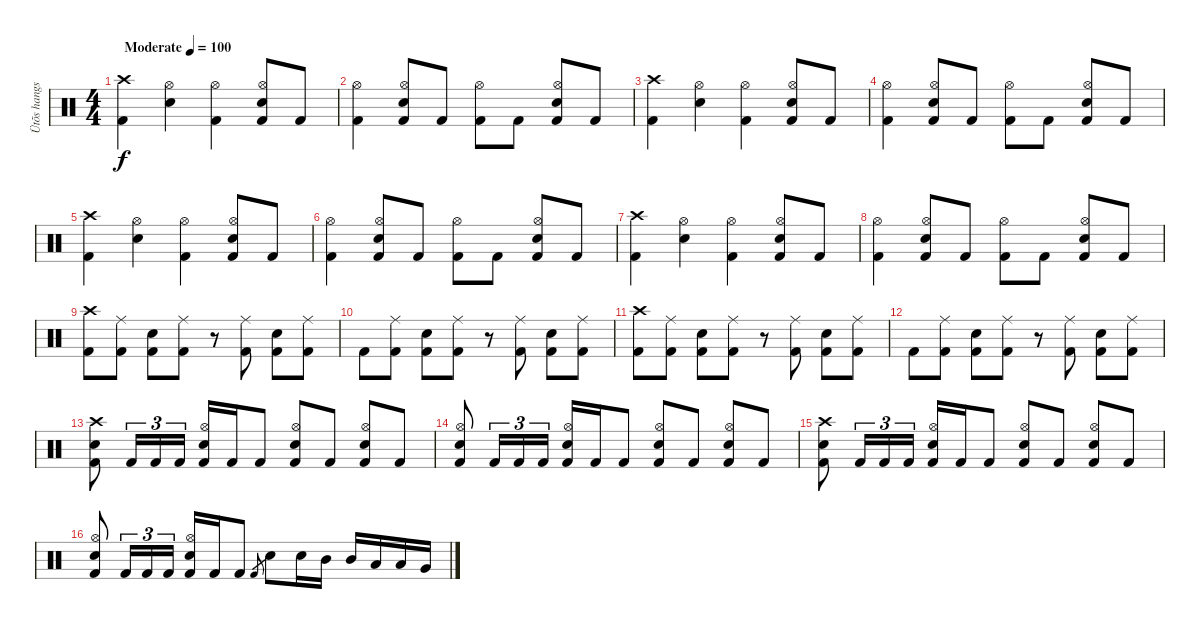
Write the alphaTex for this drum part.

\track ("Ütõs hangszer" "Ütõs hangs") {instrument percussion}
\staff {score}
\articulation defaults
\ts (4 4)
\tempo (100 "Moderate")
\clef neutral
\ks c
("Crash high (hit)" "Kick (hit) 2").4{dy f} ("Hi-Hat (open)" "Snare (hit) 2").4 ("Hi-Hat (open)" "Kick (hit) 2").4 ("Snare (hit) 2" "Hi-Hat (open)" "Kick (hit) 2").8 "Kick (hit) 2".8 |
("Hi-Hat (open)" "Kick (hit) 2").4 ("Hi-Hat (open)" "Snare (hit) 2" "Kick (hit) 2").8 "Kick (hit) 2".8 ("Hi-Hat (open)" "Kick (hit) 2").8 "Kick (hit) 2".8 ("Hi-Hat (open)" "Snare (hit) 2" "Kick (hit) 2").8 "Kick (hit) 2".8 |
("Crash high (hit)" "Kick (hit) 2").4 ("Hi-Hat (open)" "Snare (hit) 2").4 ("Hi-Hat (open)" "Kick (hit) 2").4 ("Snare (hit) 2" "Hi-Hat (open)" "Kick (hit) 2").8 "Kick (hit) 2".8 |
("Hi-Hat (open)" "Kick (hit) 2").4 ("Hi-Hat (open)" "Snare (hit) 2" "Kick (hit) 2").8 "Kick (hit) 2".8 ("Hi-Hat (open)" "Kick (hit) 2").8 "Kick (hit) 2".8 ("Hi-Hat (open)" "Snare (hit) 2" "Kick (hit) 2").8 "Kick (hit) 2".8 |
("Crash high (hit)" "Kick (hit) 2").4 ("Hi-Hat (open)" "Snare (hit) 2").4 ("Hi-Hat (open)" "Kick (hit) 2").4 ("Snare (hit) 2" "Hi-Hat (open)" "Kick (hit) 2").8 "Kick (hit) 2".8 |
("Hi-Hat (open)" "Kick (hit) 2").4 ("Hi-Hat (open)" "Snare (hit) 2" "Kick (hit) 2").8 "Kick (hit) 2".8 ("Hi-Hat (open)" "Kick (hit) 2").8 "Kick (hit) 2".8 ("Hi-Hat (open)" "Snare (hit) 2" "Kick (hit) 2").8 "Kick (hit) 2".8 |
("Crash high (hit)" "Kick (hit) 2").4 ("Hi-Hat (open)" "Snare (hit) 2").4 ("Hi-Hat (open)" "Kick (hit) 2").4 ("Snare (hit) 2" "Hi-Hat (open)" "Kick (hit) 2").8 "Kick (hit) 2".8 |
("Hi-Hat (open)" "Kick (hit) 2").4 ("Hi-Hat (open)" "Snare (hit) 2" "Kick (hit) 2").8 "Kick (hit) 2".8 ("Hi-Hat (open)" "Kick (hit) 2").8 "Kick (hit) 2".8 ("Hi-Hat (open)" "Snare (hit) 2" "Kick (hit) 2").8 "Kick (hit) 2".8 |
("Crash high (hit)" "Kick (hit) 2").8 ("Ride (middle)" "Kick (hit) 2").8 ("Snare (hit) 2" "Kick (hit) 2").8 ("Ride (middle)" "Kick (hit) 2").8 r.8 ("Ride (middle)" "Kick (hit) 2").8 ("Snare (hit) 2" "Kick (hit) 2").8 ("Ride (middle)" "Kick (hit) 2").8 |
"Kick (hit) 2".8 ("Ride (middle)" "Kick (hit) 2").8 ("Snare (hit) 2" "Kick (hit) 2").8 ("Ride (middle)" "Kick (hit) 2").8 r.8 ("Ride (middle)" "Kick (hit) 2").8 ("Snare (hit) 2" "Kick (hit) 2").8 ("Ride (middle)" "Kick (hit) 2").8 |
("Crash high (hit)" "Kick (hit) 2").8 ("Ride (middle)" "Kick (hit) 2").8 ("Snare (hit) 2" "Kick (hit) 2").8 ("Ride (middle)" "Kick (hit) 2").8 r.8 ("Ride (middle)" "Kick (hit) 2").8 ("Snare (hit) 2" "Kick (hit) 2").8 ("Ride (middle)" "Kick (hit) 2").8 |
"Kick (hit) 2".8 ("Ride (middle)" "Kick (hit) 2").8 ("Snare (hit) 2" "Kick (hit) 2").8 ("Ride (middle)" "Kick (hit) 2").8 r.8 ("Ride (middle)" "Kick (hit) 2").8 ("Snare (hit) 2" "Kick (hit) 2").8 ("Ride (middle)" "Kick (hit) 2").8 |
("Crash high (hit)" "Snare (hit) 2" "Kick (hit) 2").8 "Kick (hit) 2".16{tu (3 2)} "Kick (hit) 2".16{tu (3 2)} "Kick (hit) 2".16{tu (3 2)} ("Hi-Hat (open)" "Snare (hit) 2" "Kick (hit) 2").16 "Kick (hit) 2".16 "Kick (hit) 2".8 ("Hi-Hat (open)" "Snare (hit) 2" "Kick (hit) 2").8 "Kick (hit) 2".8 ("Hi-Hat (open)" "Snare (hit) 2" "Kick (hit) 2").8 "Kick (hit) 2".8 |
("Hi-Hat (open)" "Snare (hit) 2" "Kick (hit) 2").8 "Kick (hit) 2".16{tu (3 2)} "Kick (hit) 2".16{tu (3 2)} "Kick (hit) 2".16{tu (3 2)} ("Hi-Hat (open)" "Snare (hit) 2" "Kick (hit) 2").16 "Kick (hit) 2".16 "Kick (hit) 2".8 ("Hi-Hat (open)" "Snare (hit) 2" "Kick (hit) 2").8 "Kick (hit) 2".8 ("Hi-Hat (open)" "Snare (hit) 2" "Kick (hit) 2").8 "Kick (hit) 2".8 |
("Crash high (hit)" "Snare (hit) 2" "Kick (hit) 2").8 "Kick (hit) 2".16{tu (3 2)} "Kick (hit) 2".16{tu (3 2)} "Kick (hit) 2".16{tu (3 2)} ("Hi-Hat (open)" "Snare (hit) 2" "Kick (hit) 2").16 "Kick (hit) 2".16 "Kick (hit) 2".8 ("Hi-Hat (open)" "Snare (hit) 2" "Kick (hit) 2").8 "Kick (hit) 2".8 ("Hi-Hat (open)" "Snare (hit) 2" "Kick (hit) 2").8 "Kick (hit) 2".8 |
("Hi-Hat (open)" "Snare (hit) 2" "Kick (hit) 2").8 "Kick (hit) 2".16{tu (3 2)} "Kick (hit) 2".16{tu (3 2)} "Kick (hit) 2".16{tu (3 2)} ("Hi-Hat (open)" "Snare (hit) 2" "Kick (hit) 2").16 "Kick (hit) 2".16 "Kick (hit) 2".8 "Kick (hit) 2"{h}.8{gr} "Snare (hit) 2".8 "Snare (hit) 2".16 "Mid Tom (hit)".16 "Mid Tom (hit)".16 "Low Tom (hit)".16 "Low Tom (hit)".16 "Very Low Tom (hit)".16
